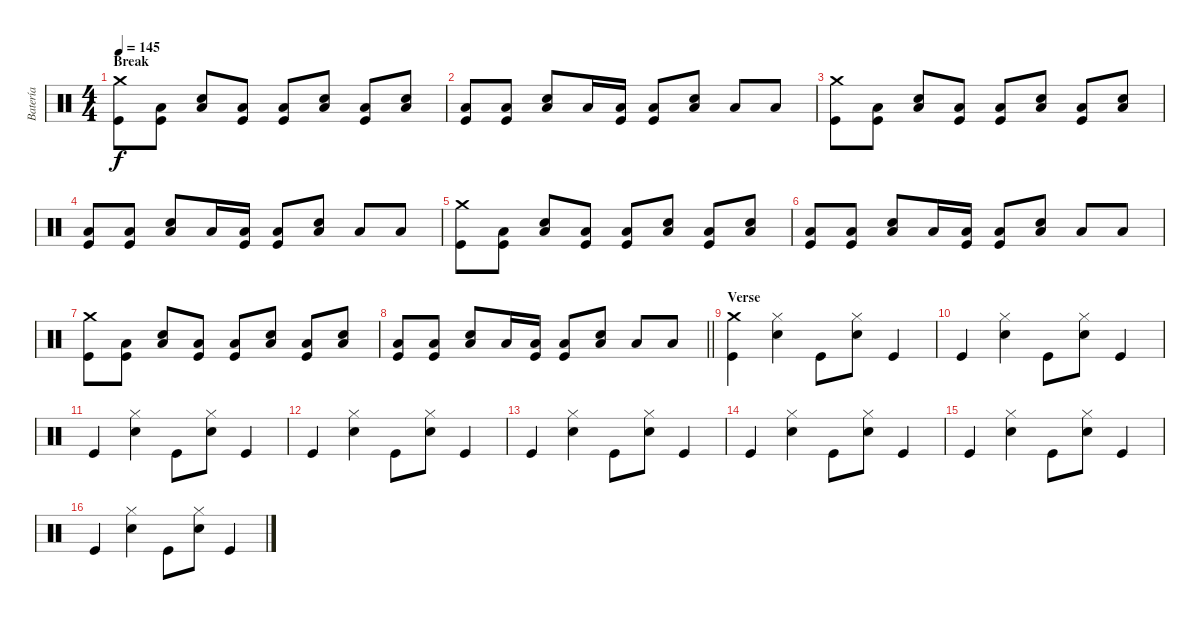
\track ("Batería" "Batería") {instrument percussion}
\staff {score}
\articulation defaults
\ts (4 4)
\section ("" "Break")
\tempo 145
\clef neutral
\ks c
("Kick (hit)" "Crash medium (hit)").8{dy f} ("Kick (hit)" "Low Floor Tom (hit)").8 ("Electric Snare (hit)" "Low Floor Tom (hit)").8 ("Kick (hit)" "Low Floor Tom (hit)").8 ("Kick (hit)" "Low Floor Tom (hit)").8 ("Electric Snare (hit)" "Low Floor Tom (hit)").8 ("Kick (hit)" "Low Floor Tom (hit)").8 ("Electric Snare (hit)" "Low Floor Tom (hit)").8 |
("Kick (hit)" "Low Floor Tom (hit)").8 ("Kick (hit)" "Low Floor Tom (hit)").8 ("Electric Snare (hit)" "Low Floor Tom (hit)").8 "Low Tom (hit)".16 ("Kick (hit)" "Low Tom (hit)").16 ("Kick (hit)" "Low Floor Tom (hit)").8 ("Electric Snare (hit)" "Low Floor Tom (hit)").8 "Low Floor Tom (hit)".8 "Low Floor Tom (hit)".8 |
("Kick (hit)" "Crash medium (hit)").8 ("Kick (hit)" "Low Floor Tom (hit)").8 ("Electric Snare (hit)" "Low Floor Tom (hit)").8 ("Kick (hit)" "Low Floor Tom (hit)").8 ("Kick (hit)" "Low Floor Tom (hit)").8 ("Electric Snare (hit)" "Low Floor Tom (hit)").8 ("Kick (hit)" "Low Floor Tom (hit)").8 ("Electric Snare (hit)" "Low Floor Tom (hit)").8 |
("Kick (hit)" "Low Floor Tom (hit)").8 ("Kick (hit)" "Low Floor Tom (hit)").8 ("Electric Snare (hit)" "Low Floor Tom (hit)").8 "Low Tom (hit)".16 ("Kick (hit)" "Low Tom (hit)").16 ("Kick (hit)" "Low Floor Tom (hit)").8 ("Electric Snare (hit)" "Low Floor Tom (hit)").8 "Low Floor Tom (hit)".8 "Low Floor Tom (hit)".8 |
("Kick (hit)" "Crash medium (hit)").8 ("Kick (hit)" "Low Floor Tom (hit)").8 ("Electric Snare (hit)" "Low Floor Tom (hit)").8 ("Kick (hit)" "Low Floor Tom (hit)").8 ("Kick (hit)" "Low Floor Tom (hit)").8 ("Electric Snare (hit)" "Low Floor Tom (hit)").8 ("Kick (hit)" "Low Floor Tom (hit)").8 ("Electric Snare (hit)" "Low Floor Tom (hit)").8 |
("Kick (hit)" "Low Floor Tom (hit)").8 ("Kick (hit)" "Low Floor Tom (hit)").8 ("Electric Snare (hit)" "Low Floor Tom (hit)").8 "Low Tom (hit)".16 ("Kick (hit)" "Low Tom (hit)").16 ("Kick (hit)" "Low Floor Tom (hit)").8 ("Electric Snare (hit)" "Low Floor Tom (hit)").8 "Low Floor Tom (hit)".8 "Low Floor Tom (hit)".8 |
("Kick (hit)" "Crash medium (hit)").8 ("Kick (hit)" "Low Floor Tom (hit)").8 ("Electric Snare (hit)" "Low Floor Tom (hit)").8 ("Kick (hit)" "Low Floor Tom (hit)").8 ("Kick (hit)" "Low Floor Tom (hit)").8 ("Electric Snare (hit)" "Low Floor Tom (hit)").8 ("Kick (hit)" "Low Floor Tom (hit)").8 ("Electric Snare (hit)" "Low Floor Tom (hit)").8 |
\barLineRight lightlight
("Kick (hit)" "Low Floor Tom (hit)").8 ("Kick (hit)" "Low Floor Tom (hit)").8 ("Electric Snare (hit)" "Low Floor Tom (hit)").8 "Low Tom (hit)".16 ("Kick (hit)" "Low Tom (hit)").16 ("Kick (hit)" "Low Floor Tom (hit)").8 ("Electric Snare (hit)" "Low Floor Tom (hit)").8 "Low Floor Tom (hit)".8 "Low Floor Tom (hit)".8 |
\section ("" "Verse")
("Kick (hit)" "Crash medium (hit)").4 ("Electric Snare (hit)" "Hi-Hat (closed)").4 "Kick (hit)".8 ("Electric Snare (hit)" "Hi-Hat (closed)").8 "Kick (hit)".4 |
"Kick (hit)".4 ("Electric Snare (hit)" "Hi-Hat (closed)").4 "Kick (hit)".8 ("Electric Snare (hit)" "Hi-Hat (closed)").8 "Kick (hit)".4 |
"Kick (hit)".4 ("Electric Snare (hit)" "Hi-Hat (closed)").4 "Kick (hit)".8 ("Electric Snare (hit)" "Hi-Hat (closed)").8 "Kick (hit)".4 |
"Kick (hit)".4 ("Electric Snare (hit)" "Hi-Hat (closed)").4 "Kick (hit)".8 ("Electric Snare (hit)" "Hi-Hat (closed)").8 "Kick (hit)".4 |
"Kick (hit)".4 ("Electric Snare (hit)" "Hi-Hat (closed)").4 "Kick (hit)".8 ("Electric Snare (hit)" "Hi-Hat (closed)").8 "Kick (hit)".4 |
"Kick (hit)".4 ("Electric Snare (hit)" "Hi-Hat (closed)").4 "Kick (hit)".8 ("Electric Snare (hit)" "Hi-Hat (closed)").8 "Kick (hit)".4 |
"Kick (hit)".4 ("Electric Snare (hit)" "Hi-Hat (closed)").4 "Kick (hit)".8 ("Electric Snare (hit)" "Hi-Hat (closed)").8 "Kick (hit)".4 |
"Kick (hit)".4 ("Electric Snare (hit)" "Hi-Hat (closed)").4 "Kick (hit)".8 ("Electric Snare (hit)" "Hi-Hat (closed)").8 "Kick (hit)".4
